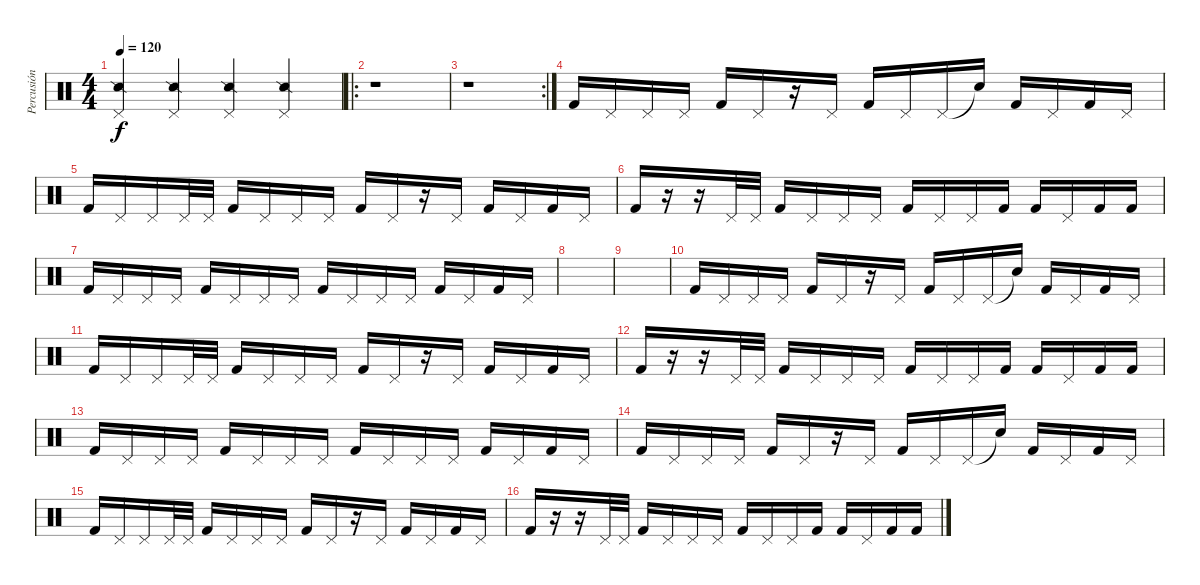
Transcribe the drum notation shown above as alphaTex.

\track ("Percusión" "Percusión") {instrument percussion}
\staff {score}
\articulation defaults
\ts (4 4)
\tempo 120
\clef neutral
\ks c
("Pedal Hi-Hat (hit)" "Snare (side stick) 2").4{dy f} ("Pedal Hi-Hat (hit)" "Snare (side stick) 2").4 ("Pedal Hi-Hat (hit)" "Snare (side stick) 2").4 ("Pedal Hi-Hat (hit)" "Snare (side stick) 2").4 |
\ro
r.1 |
\rc 2
r.1 |
"Kick (hit) 2".16 "Pedal Hi-Hat (hit)".16 "Pedal Hi-Hat (hit)".16 "Pedal Hi-Hat (hit)".16 "Kick (hit) 2".16 "Pedal Hi-Hat (hit)".16 r.16 "Pedal Hi-Hat (hit)".16 "Kick (hit) 2".16 "Pedal Hi-Hat (hit)".16 "Pedal Hi-Hat (hit)".16 "Snare (hit)"{t}.16 "Kick (hit) 2".16 "Pedal Hi-Hat (hit)".16 "Kick (hit) 2".16 "Pedal Hi-Hat (hit)".16 |
"Kick (hit) 2".16 "Pedal Hi-Hat (hit)".16 "Pedal Hi-Hat (hit)".16 "Pedal Hi-Hat (hit)".32 "Pedal Hi-Hat (hit)".32 "Kick (hit) 2".16 "Pedal Hi-Hat (hit)".16 "Pedal Hi-Hat (hit)".16 "Pedal Hi-Hat (hit)".16 "Kick (hit) 2".16 "Pedal Hi-Hat (hit)".16 r.16 "Pedal Hi-Hat (hit)".16 "Kick (hit) 2".16 "Pedal Hi-Hat (hit)".16 "Kick (hit) 2".16 "Pedal Hi-Hat (hit)".16 |
"Kick (hit) 2".16 r.16 r.16 "Pedal Hi-Hat (hit)".32 "Pedal Hi-Hat (hit)".32 "Kick (hit) 2".16 "Pedal Hi-Hat (hit)".16 "Pedal Hi-Hat (hit)".16 "Pedal Hi-Hat (hit)".16 "Kick (hit) 2".16 "Pedal Hi-Hat (hit)".16 "Pedal Hi-Hat (hit)".16 "Kick (hit) 2".16 "Kick (hit) 2".16 "Pedal Hi-Hat (hit)".16 "Kick (hit) 2".16 "Kick (hit) 2".16 |
"Kick (hit) 2".16 "Pedal Hi-Hat (hit)".16 "Pedal Hi-Hat (hit)".16 "Pedal Hi-Hat (hit)".16 "Kick (hit) 2".16 "Pedal Hi-Hat (hit)".16 "Pedal Hi-Hat (hit)".16 "Pedal Hi-Hat (hit)".16 "Kick (hit) 2".16 "Pedal Hi-Hat (hit)".16 "Pedal Hi-Hat (hit)".16 "Pedal Hi-Hat (hit)".16 "Kick (hit) 2".16 "Pedal Hi-Hat (hit)".16 "Kick (hit) 2".16 "Pedal Hi-Hat (hit)".16 |
|
|
"Kick (hit) 2".16 "Pedal Hi-Hat (hit)".16 "Pedal Hi-Hat (hit)".16 "Pedal Hi-Hat (hit)".16 "Kick (hit) 2".16 "Pedal Hi-Hat (hit)".16 r.16 "Pedal Hi-Hat (hit)".16 "Kick (hit) 2".16 "Pedal Hi-Hat (hit)".16 "Pedal Hi-Hat (hit)".16 "Snare (hit)"{t}.16 "Kick (hit) 2".16 "Pedal Hi-Hat (hit)".16 "Kick (hit) 2".16 "Pedal Hi-Hat (hit)".16 |
"Kick (hit) 2".16 "Pedal Hi-Hat (hit)".16 "Pedal Hi-Hat (hit)".16 "Pedal Hi-Hat (hit)".32 "Pedal Hi-Hat (hit)".32 "Kick (hit) 2".16 "Pedal Hi-Hat (hit)".16 "Pedal Hi-Hat (hit)".16 "Pedal Hi-Hat (hit)".16 "Kick (hit) 2".16 "Pedal Hi-Hat (hit)".16 r.16 "Pedal Hi-Hat (hit)".16 "Kick (hit) 2".16 "Pedal Hi-Hat (hit)".16 "Kick (hit) 2".16 "Pedal Hi-Hat (hit)".16 |
"Kick (hit) 2".16 r.16 r.16 "Pedal Hi-Hat (hit)".32 "Pedal Hi-Hat (hit)".32 "Kick (hit) 2".16 "Pedal Hi-Hat (hit)".16 "Pedal Hi-Hat (hit)".16 "Pedal Hi-Hat (hit)".16 "Kick (hit) 2".16 "Pedal Hi-Hat (hit)".16 "Pedal Hi-Hat (hit)".16 "Kick (hit) 2".16 "Kick (hit) 2".16 "Pedal Hi-Hat (hit)".16 "Kick (hit) 2".16 "Kick (hit) 2".16 |
"Kick (hit) 2".16 "Pedal Hi-Hat (hit)".16 "Pedal Hi-Hat (hit)".16 "Pedal Hi-Hat (hit)".16 "Kick (hit) 2".16 "Pedal Hi-Hat (hit)".16 "Pedal Hi-Hat (hit)".16 "Pedal Hi-Hat (hit)".16 "Kick (hit) 2".16 "Pedal Hi-Hat (hit)".16 "Pedal Hi-Hat (hit)".16 "Pedal Hi-Hat (hit)".16 "Kick (hit) 2".16 "Pedal Hi-Hat (hit)".16 "Kick (hit) 2".16 "Pedal Hi-Hat (hit)".16 |
"Kick (hit) 2".16 "Pedal Hi-Hat (hit)".16 "Pedal Hi-Hat (hit)".16 "Pedal Hi-Hat (hit)".16 "Kick (hit) 2".16 "Pedal Hi-Hat (hit)".16 r.16 "Pedal Hi-Hat (hit)".16 "Kick (hit) 2".16 "Pedal Hi-Hat (hit)".16 "Pedal Hi-Hat (hit)".16 "Snare (hit)"{t}.16 "Kick (hit) 2".16 "Pedal Hi-Hat (hit)".16 "Kick (hit) 2".16 "Pedal Hi-Hat (hit)".16 |
"Kick (hit) 2".16 "Pedal Hi-Hat (hit)".16 "Pedal Hi-Hat (hit)".16 "Pedal Hi-Hat (hit)".32 "Pedal Hi-Hat (hit)".32 "Kick (hit) 2".16 "Pedal Hi-Hat (hit)".16 "Pedal Hi-Hat (hit)".16 "Pedal Hi-Hat (hit)".16 "Kick (hit) 2".16 "Pedal Hi-Hat (hit)".16 r.16 "Pedal Hi-Hat (hit)".16 "Kick (hit) 2".16 "Pedal Hi-Hat (hit)".16 "Kick (hit) 2".16 "Pedal Hi-Hat (hit)".16 |
"Kick (hit) 2".16 r.16 r.16 "Pedal Hi-Hat (hit)".32 "Pedal Hi-Hat (hit)".32 "Kick (hit) 2".16 "Pedal Hi-Hat (hit)".16 "Pedal Hi-Hat (hit)".16 "Pedal Hi-Hat (hit)".16 "Kick (hit) 2".16 "Pedal Hi-Hat (hit)".16 "Pedal Hi-Hat (hit)".16 "Kick (hit) 2".16 "Kick (hit) 2".16 "Pedal Hi-Hat (hit)".16 "Kick (hit) 2".16 "Kick (hit) 2".16
